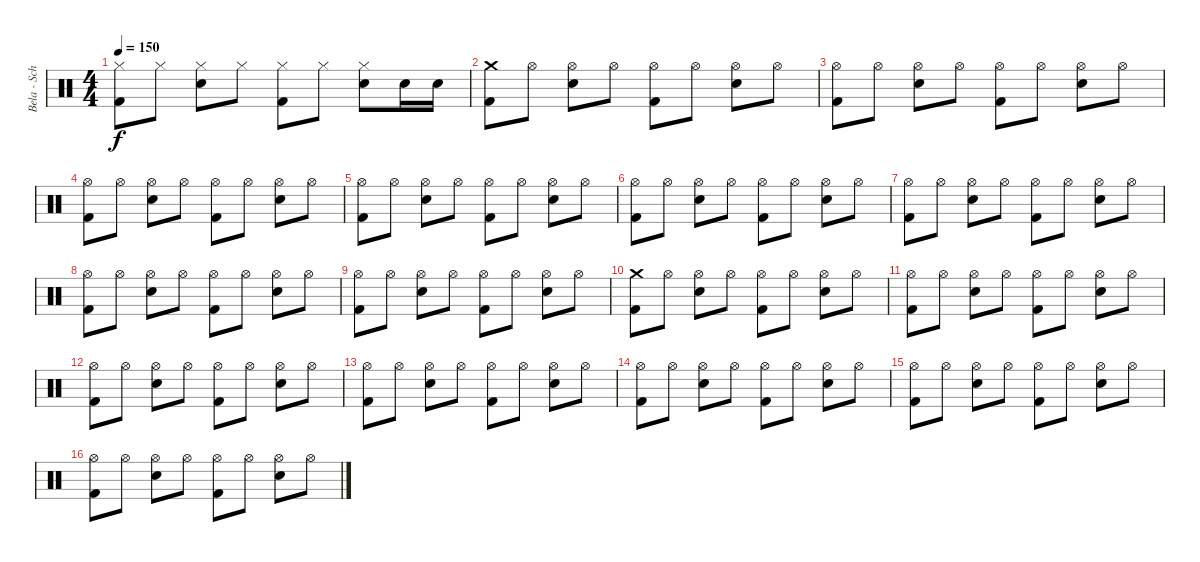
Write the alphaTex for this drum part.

\track ("Bela - Schlagzeug" "Bela - Sch") {instrument percussion}
\staff {score}
\articulation defaults
\ts (4 4)
\tempo 150
\clef neutral
\ks c
("Hi-Hat (closed)" "Kick (hit) 2").8{dy f} "Hi-Hat (closed)".8 ("Hi-Hat (closed)" "Snare (hit) 2").8 "Hi-Hat (closed)".8 ("Hi-Hat (closed)" "Kick (hit) 2").8 "Hi-Hat (closed)".8 ("Hi-Hat (closed)" "Snare (hit) 2").8 "Snare (hit) 2".16 "Snare (hit) 2".16 |
("Crash medium (hit)" "Kick (hit) 2").8 "Hi-Hat (open)".8 ("Hi-Hat (open)" "Snare (hit) 2").8 "Hi-Hat (open)".8 ("Hi-Hat (open)" "Kick (hit) 2").8 "Hi-Hat (open)".8 ("Hi-Hat (open)" "Snare (hit) 2").8 "Hi-Hat (open)".8 |
("Hi-Hat (open)" "Kick (hit) 2").8 "Hi-Hat (open)".8 ("Hi-Hat (open)" "Snare (hit) 2").8 "Hi-Hat (open)".8 ("Hi-Hat (open)" "Kick (hit) 2").8 "Hi-Hat (open)".8 ("Hi-Hat (open)" "Snare (hit) 2").8 "Hi-Hat (open)".8 |
("Hi-Hat (open)" "Kick (hit) 2").8 "Hi-Hat (open)".8 ("Hi-Hat (open)" "Snare (hit) 2").8 "Hi-Hat (open)".8 ("Hi-Hat (open)" "Kick (hit) 2").8 "Hi-Hat (open)".8 ("Hi-Hat (open)" "Snare (hit) 2").8 "Hi-Hat (open)".8 |
("Hi-Hat (open)" "Kick (hit) 2").8 "Hi-Hat (open)".8 ("Hi-Hat (open)" "Snare (hit) 2").8 "Hi-Hat (open)".8 ("Hi-Hat (open)" "Kick (hit) 2").8 "Hi-Hat (open)".8 ("Hi-Hat (open)" "Snare (hit) 2").8 "Hi-Hat (open)".8 |
("Hi-Hat (open)" "Kick (hit) 2").8 "Hi-Hat (open)".8 ("Hi-Hat (open)" "Snare (hit) 2").8 "Hi-Hat (open)".8 ("Hi-Hat (open)" "Kick (hit) 2").8 "Hi-Hat (open)".8 ("Hi-Hat (open)" "Snare (hit) 2").8 "Hi-Hat (open)".8 |
("Hi-Hat (open)" "Kick (hit) 2").8 "Hi-Hat (open)".8 ("Hi-Hat (open)" "Snare (hit) 2").8 "Hi-Hat (open)".8 ("Hi-Hat (open)" "Kick (hit) 2").8 "Hi-Hat (open)".8 ("Hi-Hat (open)" "Snare (hit) 2").8 "Hi-Hat (open)".8 |
("Hi-Hat (open)" "Kick (hit) 2").8 "Hi-Hat (open)".8 ("Hi-Hat (open)" "Snare (hit) 2").8 "Hi-Hat (open)".8 ("Hi-Hat (open)" "Kick (hit) 2").8 "Hi-Hat (open)".8 ("Hi-Hat (open)" "Snare (hit) 2").8 "Hi-Hat (open)".8 |
("Hi-Hat (open)" "Kick (hit) 2").8 "Hi-Hat (open)".8 ("Hi-Hat (open)" "Snare (hit) 2").8 "Hi-Hat (open)".8 ("Hi-Hat (open)" "Kick (hit) 2").8 "Hi-Hat (open)".8 ("Hi-Hat (open)" "Snare (hit) 2").8 "Hi-Hat (open)".8 |
("Crash medium (hit)" "Kick (hit) 2").8 "Hi-Hat (open)".8 ("Hi-Hat (open)" "Snare (hit) 2").8 "Hi-Hat (open)".8 ("Hi-Hat (open)" "Kick (hit) 2").8 "Hi-Hat (open)".8 ("Hi-Hat (open)" "Snare (hit) 2").8 "Hi-Hat (open)".8 |
("Hi-Hat (open)" "Kick (hit) 2").8 "Hi-Hat (open)".8 ("Hi-Hat (open)" "Snare (hit) 2").8 "Hi-Hat (open)".8 ("Hi-Hat (open)" "Kick (hit) 2").8 "Hi-Hat (open)".8 ("Hi-Hat (open)" "Snare (hit) 2").8 "Hi-Hat (open)".8 |
("Hi-Hat (open)" "Kick (hit) 2").8 "Hi-Hat (open)".8 ("Hi-Hat (open)" "Snare (hit) 2").8 "Hi-Hat (open)".8 ("Hi-Hat (open)" "Kick (hit) 2").8 "Hi-Hat (open)".8 ("Hi-Hat (open)" "Snare (hit) 2").8 "Hi-Hat (open)".8 |
("Hi-Hat (open)" "Kick (hit) 2").8 "Hi-Hat (open)".8 ("Hi-Hat (open)" "Snare (hit) 2").8 "Hi-Hat (open)".8 ("Hi-Hat (open)" "Kick (hit) 2").8 "Hi-Hat (open)".8 ("Hi-Hat (open)" "Snare (hit) 2").8 "Hi-Hat (open)".8 |
("Hi-Hat (open)" "Kick (hit) 2").8 "Hi-Hat (open)".8 ("Hi-Hat (open)" "Snare (hit) 2").8 "Hi-Hat (open)".8 ("Hi-Hat (open)" "Kick (hit) 2").8 "Hi-Hat (open)".8 ("Hi-Hat (open)" "Snare (hit) 2").8 "Hi-Hat (open)".8 |
("Hi-Hat (open)" "Kick (hit) 2").8 "Hi-Hat (open)".8 ("Hi-Hat (open)" "Snare (hit) 2").8 "Hi-Hat (open)".8 ("Hi-Hat (open)" "Kick (hit) 2").8 "Hi-Hat (open)".8 ("Hi-Hat (open)" "Snare (hit) 2").8 "Hi-Hat (open)".8 |
("Hi-Hat (open)" "Kick (hit) 2").8 "Hi-Hat (open)".8 ("Hi-Hat (open)" "Snare (hit) 2").8 "Hi-Hat (open)".8 ("Hi-Hat (open)" "Kick (hit) 2").8 "Hi-Hat (open)".8 ("Hi-Hat (open)" "Snare (hit) 2").8 "Hi-Hat (open)".8
